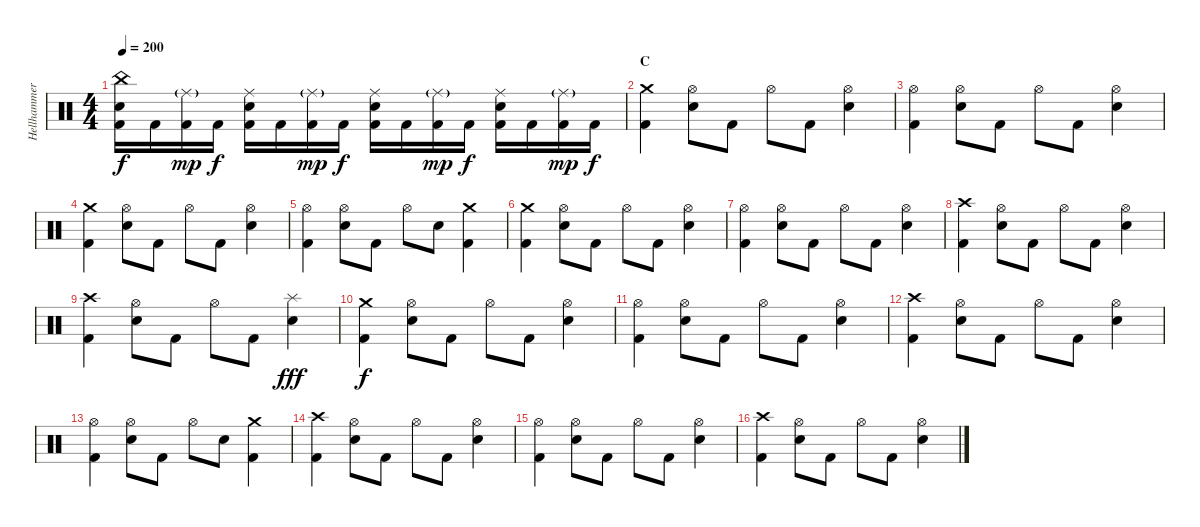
\track ("Hellhammer" "Hellhammer") {instrument percussion}
\staff {score}
\articulation defaults
\ts (4 4)
\tempo 200
\clef neutral
\ks c
("Kick (hit) 2" "Electric Snare (hit)" "China (hit)").16{dy f} "Kick (hit) 2".16 ("Kick (hit) 2" "Ride (middle)"{g}).16{dy mp} "Kick (hit) 2".16{dy f} ("Kick (hit) 2" "Electric Snare (hit)" "Ride (middle)").16 "Kick (hit) 2".16 ("Kick (hit) 2" "Ride (middle)"{g}).16{dy mp} "Kick (hit) 2".16{dy f} ("Kick (hit) 2" "Electric Snare (hit)" "Ride (middle)").16 "Kick (hit) 2".16 ("Kick (hit) 2" "Ride (middle)"{g}).16{dy mp} "Kick (hit) 2".16{dy f} ("Kick (hit) 2" "Electric Snare (hit)" "Ride (middle)").16 "Kick (hit) 2".16 ("Kick (hit) 2" "Ride (middle)"{g}).16{dy mp} "Kick (hit) 2".16{dy f} |
\section ("" "C")
("Kick (hit) 2" "Crash medium (hit)").4 ("Electric Snare (hit)" "Hi-Hat (open)").8 "Kick (hit) 2".8 "Hi-Hat (open)".8 "Kick (hit) 2".8 ("Electric Snare (hit)" "Hi-Hat (open)").4 |
("Kick (hit) 2" "Hi-Hat (open)").4 ("Electric Snare (hit)" "Hi-Hat (open)").8 "Kick (hit) 2".8 "Hi-Hat (open)".8 "Kick (hit) 2".8 ("Electric Snare (hit)" "Hi-Hat (open)").4 |
("Kick (hit) 2" "Crash medium (hit)").4 ("Electric Snare (hit)" "Hi-Hat (open)").8 "Kick (hit) 2".8 "Hi-Hat (open)".8 "Kick (hit) 2".8 ("Electric Snare (hit)" "Hi-Hat (open)").4 |
("Kick (hit) 2" "Hi-Hat (open)").4 ("Electric Snare (hit)" "Hi-Hat (open)").8 "Kick (hit) 2".8 "Hi-Hat (open)".8 "Electric Snare (hit)".8 ("Kick (hit) 2" "Crash medium (hit)").4 |
("Kick (hit) 2" "Crash medium (hit)").4 ("Electric Snare (hit)" "Hi-Hat (open)").8 "Kick (hit) 2".8 "Hi-Hat (open)".8 "Kick (hit) 2".8 ("Electric Snare (hit)" "Hi-Hat (open)").4 |
("Kick (hit) 2" "Hi-Hat (open)").4 ("Electric Snare (hit)" "Hi-Hat (open)").8 "Kick (hit) 2".8 "Hi-Hat (open)".8 "Kick (hit) 2".8 ("Electric Snare (hit)" "Hi-Hat (open)").4 |
("Kick (hit) 2" "Crash high (hit)").4 ("Electric Snare (hit)" "Hi-Hat (open)").8 "Kick (hit) 2".8 "Hi-Hat (open)".8 "Kick (hit) 2".8 ("Electric Snare (hit)" "Hi-Hat (open)").4 |
("Kick (hit) 2" "Crash high (hit)").4 ("Electric Snare (hit)" "Hi-Hat (open)").8 "Kick (hit) 2".8 "Hi-Hat (open)".8 "Kick (hit) 2".8 ("Electric Snare (hit)" "Splash (hit)").4{dy fff} |
("Kick (hit) 2" "Crash medium (hit)").4{dy f} ("Electric Snare (hit)" "Hi-Hat (open)").8 "Kick (hit) 2".8 "Hi-Hat (open)".8 "Kick (hit) 2".8 ("Electric Snare (hit)" "Hi-Hat (open)").4 |
("Kick (hit) 2" "Hi-Hat (open)").4 ("Electric Snare (hit)" "Hi-Hat (open)").8 "Kick (hit) 2".8 "Hi-Hat (open)".8 "Kick (hit) 2".8 ("Electric Snare (hit)" "Hi-Hat (open)").4 |
("Kick (hit) 2" "Crash high (hit)").4 ("Electric Snare (hit)" "Hi-Hat (open)").8 "Kick (hit) 2".8 "Hi-Hat (open)".8 "Kick (hit) 2".8 ("Electric Snare (hit)" "Hi-Hat (open)").4 |
("Kick (hit) 2" "Hi-Hat (open)").4 ("Electric Snare (hit)" "Hi-Hat (open)").8 "Kick (hit) 2".8 "Hi-Hat (open)".8 "Electric Snare (hit)".8 ("Kick (hit) 2" "Crash medium (hit)").4 |
("Kick (hit) 2" "Crash high (hit)").4 ("Electric Snare (hit)" "Hi-Hat (open)").8 "Kick (hit) 2".8 "Hi-Hat (open)".8 "Kick (hit) 2".8 ("Electric Snare (hit)" "Hi-Hat (open)").4 |
("Kick (hit) 2" "Hi-Hat (open)").4 ("Electric Snare (hit)" "Hi-Hat (open)").8 "Kick (hit) 2".8 "Hi-Hat (open)".8 "Kick (hit) 2".8 ("Electric Snare (hit)" "Hi-Hat (open)").4 |
("Kick (hit) 2" "Crash high (hit)").4 ("Electric Snare (hit)" "Hi-Hat (open)").8 "Kick (hit) 2".8 "Hi-Hat (open)".8 "Kick (hit) 2".8 ("Electric Snare (hit)" "Hi-Hat (open)").4
